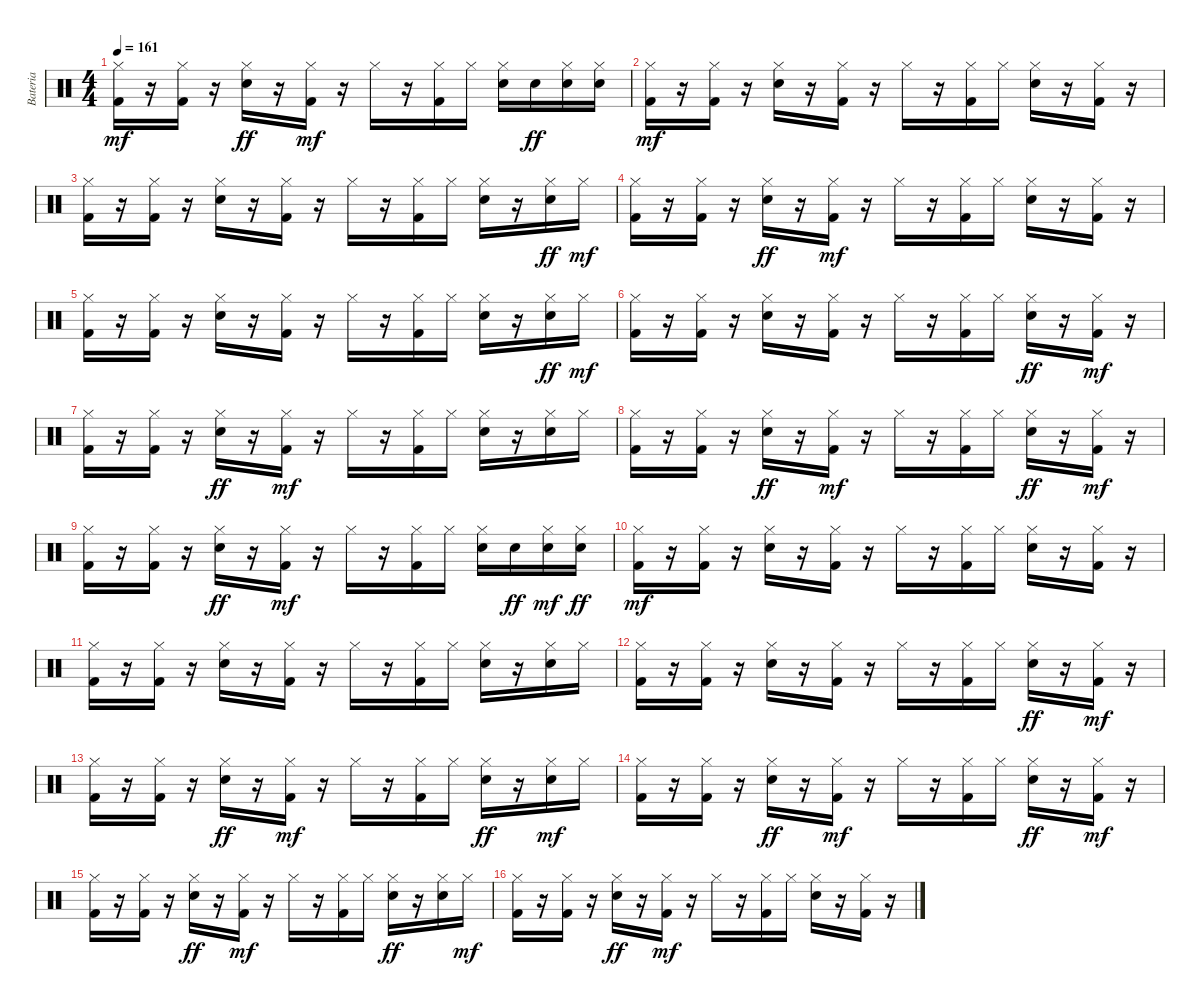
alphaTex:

\track ("Bateria" "Bateria") {instrument percussion}
\staff {score}
\articulation defaults
\ts (4 4)
\tempo 161
\clef neutral
\ks c
("Hi-Hat (closed)" "Kick (hit) 2").16{dy mf} r.16 ("Kick (hit) 2" "Hi-Hat (closed)").16 r.16 ("Hi-Hat (closed)" "Electric Snare (hit)").16{dy ff} r.16 ("Hi-Hat (closed)" "Kick (hit) 2").16{dy mf} r.16 "Hi-Hat (closed)".16 r.16 ("Hi-Hat (closed)" "Kick (hit) 2").16 "Hi-Hat (closed)".16 ("Electric Snare (hit)" "Hi-Hat (closed)").16 "Electric Snare (hit)".16{dy ff} ("Hi-Hat (closed)" "Electric Snare (hit)").16 ("Hi-Hat (closed)" "Electric Snare (hit)").16 |
("Kick (hit) 2" "Hi-Hat (closed)").16{dy mf} r.16 ("Kick (hit) 2" "Hi-Hat (closed)").16 r.16 ("Electric Snare (hit)" "Hi-Hat (closed)").16 r.16 ("Kick (hit) 2" "Hi-Hat (closed)").16 r.16 "Hi-Hat (closed)".16 r.16 ("Kick (hit) 2" "Hi-Hat (closed)").16 "Hi-Hat (closed)".16 ("Electric Snare (hit)" "Hi-Hat (closed)").16 r.16 ("Kick (hit) 2" "Hi-Hat (closed)").16 r.16 |
("Hi-Hat (closed)" "Kick (hit) 2").16 r.16 ("Kick (hit) 2" "Hi-Hat (closed)").16 r.16 ("Electric Snare (hit)" "Hi-Hat (closed)").16 r.16 ("Kick (hit) 2" "Hi-Hat (closed)").16 r.16 "Hi-Hat (closed)".16 r.16 ("Hi-Hat (closed)" "Kick (hit) 2").16 "Hi-Hat (closed)".16 ("Electric Snare (hit)" "Hi-Hat (closed)").16 r.16 ("Hi-Hat (closed)" "Electric Snare (hit)").16{dy ff} "Hi-Hat (closed)".16{dy mf} |
("Kick (hit) 2" "Hi-Hat (closed)").16 r.16 ("Kick (hit) 2" "Hi-Hat (closed)").16 r.16 ("Hi-Hat (closed)" "Electric Snare (hit)").16{dy ff} r.16 ("Hi-Hat (closed)" "Kick (hit) 2").16{dy mf} r.16 "Hi-Hat (closed)".16 r.16 ("Hi-Hat (closed)" "Kick (hit) 2").16 "Hi-Hat (closed)".16 ("Electric Snare (hit)" "Hi-Hat (closed)").16 r.16 ("Hi-Hat (closed)" "Kick (hit) 2").16 r.16 |
("Kick (hit) 2" "Hi-Hat (closed)").16 r.16 ("Kick (hit) 2" "Hi-Hat (closed)").16 r.16 ("Electric Snare (hit)" "Hi-Hat (closed)").16 r.16 ("Kick (hit) 2" "Hi-Hat (closed)").16 r.16 "Hi-Hat (closed)".16 r.16 ("Kick (hit) 2" "Hi-Hat (closed)").16 "Hi-Hat (closed)".16 ("Electric Snare (hit)" "Hi-Hat (closed)").16 r.16 ("Hi-Hat (closed)" "Electric Snare (hit)").16{dy ff} "Hi-Hat (closed)".16{dy mf} |
("Hi-Hat (closed)" "Kick (hit) 2").16 r.16 ("Hi-Hat (closed)" "Kick (hit) 2").16 r.16 ("Electric Snare (hit)" "Hi-Hat (closed)").16 r.16 ("Hi-Hat (closed)" "Kick (hit) 2").16 r.16 "Hi-Hat (closed)".16 r.16 ("Hi-Hat (closed)" "Kick (hit) 2").16 "Hi-Hat (closed)".16 ("Hi-Hat (closed)" "Electric Snare (hit)").16{dy ff} r.16 ("Kick (hit) 2" "Hi-Hat (closed)").16{dy mf} r.16 |
("Kick (hit) 2" "Hi-Hat (closed)").16 r.16 ("Hi-Hat (closed)" "Kick (hit) 2").16 r.16 ("Hi-Hat (closed)" "Electric Snare (hit)").16{dy ff} r.16 ("Kick (hit) 2" "Hi-Hat (closed)").16{dy mf} r.16 "Hi-Hat (closed)".16 r.16 ("Kick (hit) 2" "Hi-Hat (closed)").16 "Hi-Hat (closed)".16 ("Electric Snare (hit)" "Hi-Hat (closed)").16 r.16 ("Electric Snare (hit)" "Hi-Hat (closed)").16 "Hi-Hat (closed)".16 |
("Hi-Hat (closed)" "Kick (hit) 2").16 r.16 ("Hi-Hat (closed)" "Kick (hit) 2").16 r.16 ("Hi-Hat (closed)" "Electric Snare (hit)").16{dy ff} r.16 ("Kick (hit) 2" "Hi-Hat (closed)").16{dy mf} r.16 "Hi-Hat (closed)".16 r.16 ("Kick (hit) 2" "Hi-Hat (closed)").16 "Hi-Hat (closed)".16 ("Hi-Hat (closed)" "Electric Snare (hit)").16{dy ff} r.16 ("Hi-Hat (closed)" "Kick (hit) 2").16{dy mf} r.16 |
("Kick (hit) 2" "Hi-Hat (closed)").16 r.16 ("Kick (hit) 2" "Hi-Hat (closed)").16 r.16 ("Hi-Hat (closed)" "Electric Snare (hit)").16{dy ff} r.16 ("Kick (hit) 2" "Hi-Hat (closed)").16{dy mf} r.16 "Hi-Hat (closed)".16 r.16 ("Hi-Hat (closed)" "Kick (hit) 2").16 "Hi-Hat (closed)".16 ("Electric Snare (hit)" "Hi-Hat (closed)").16 "Electric Snare (hit)".16{dy ff} ("Electric Snare (hit)" "Hi-Hat (closed)").16{dy mf} ("Hi-Hat (closed)" "Electric Snare (hit)").16{dy ff} |
("Kick (hit) 2" "Hi-Hat (closed)").16{dy mf} r.16 ("Kick (hit) 2" "Hi-Hat (closed)").16 r.16 ("Electric Snare (hit)" "Hi-Hat (closed)").16 r.16 ("Hi-Hat (closed)" "Kick (hit) 2").16 r.16 "Hi-Hat (closed)".16 r.16 ("Kick (hit) 2" "Hi-Hat (closed)").16 "Hi-Hat (closed)".16 ("Electric Snare (hit)" "Hi-Hat (closed)").16 r.16 ("Kick (hit) 2" "Hi-Hat (closed)").16 r.16 |
("Hi-Hat (closed)" "Kick (hit) 2").16 r.16 ("Hi-Hat (closed)" "Kick (hit) 2").16 r.16 ("Electric Snare (hit)" "Hi-Hat (closed)").16 r.16 ("Hi-Hat (closed)" "Kick (hit) 2").16 r.16 "Hi-Hat (closed)".16 r.16 ("Kick (hit) 2" "Hi-Hat (closed)").16 "Hi-Hat (closed)".16 ("Electric Snare (hit)" "Hi-Hat (closed)").16 r.16 ("Electric Snare (hit)" "Hi-Hat (closed)").16 "Hi-Hat (closed)".16 |
("Hi-Hat (closed)" "Kick (hit) 2").16 r.16 ("Hi-Hat (closed)" "Kick (hit) 2").16 r.16 ("Electric Snare (hit)" "Hi-Hat (closed)").16 r.16 ("Hi-Hat (closed)" "Kick (hit) 2").16 r.16 "Hi-Hat (closed)".16 r.16 ("Hi-Hat (closed)" "Kick (hit) 2").16 "Hi-Hat (closed)".16 ("Hi-Hat (closed)" "Electric Snare (hit)").16{dy ff} r.16 ("Hi-Hat (closed)" "Kick (hit) 2").16{dy mf} r.16 |
("Hi-Hat (closed)" "Kick (hit) 2").16 r.16 ("Kick (hit) 2" "Hi-Hat (closed)").16 r.16 ("Hi-Hat (closed)" "Electric Snare (hit)").16{dy ff} r.16 ("Kick (hit) 2" "Hi-Hat (closed)").16{dy mf} r.16 "Hi-Hat (closed)".16 r.16 ("Hi-Hat (closed)" "Kick (hit) 2").16 "Hi-Hat (closed)".16 ("Hi-Hat (closed)" "Electric Snare (hit)").16{dy ff} r.16 ("Electric Snare (hit)" "Hi-Hat (closed)").16{dy mf} "Hi-Hat (closed)".16 |
("Kick (hit) 2" "Hi-Hat (closed)").16 r.16 ("Kick (hit) 2" "Hi-Hat (closed)").16 r.16 ("Hi-Hat (closed)" "Electric Snare (hit)").16{dy ff} r.16 ("Kick (hit) 2" "Hi-Hat (closed)").16{dy mf} r.16 "Hi-Hat (closed)".16 r.16 ("Hi-Hat (closed)" "Kick (hit) 2").16 "Hi-Hat (closed)".16 ("Hi-Hat (closed)" "Electric Snare (hit)").16{dy ff} r.16 ("Hi-Hat (closed)" "Kick (hit) 2").16{dy mf} r.16 |
("Kick (hit) 2" "Hi-Hat (closed)").16 r.16 ("Hi-Hat (closed)" "Kick (hit) 2").16 r.16 ("Hi-Hat (closed)" "Electric Snare (hit)").16{dy ff} r.16 ("Kick (hit) 2" "Hi-Hat (closed)").16{dy mf} r.16 "Hi-Hat (closed)".16 r.16 ("Hi-Hat (closed)" "Kick (hit) 2").16 "Hi-Hat (closed)".16 ("Hi-Hat (closed)" "Electric Snare (hit)").16{dy ff} r.16 ("Hi-Hat (closed)" "Electric Snare (hit)").16 "Hi-Hat (closed)".16{dy mf} |
("Kick (hit) 2" "Hi-Hat (closed)").16 r.16 ("Hi-Hat (closed)" "Kick (hit) 2").16 r.16 ("Hi-Hat (closed)" "Electric Snare (hit)").16{dy ff} r.16 ("Hi-Hat (closed)" "Kick (hit) 2").16{dy mf} r.16 "Hi-Hat (closed)".16 r.16 ("Hi-Hat (closed)" "Kick (hit) 2").16 "Hi-Hat (closed)".16 ("Electric Snare (hit)" "Hi-Hat (closed)").16 r.16 ("Hi-Hat (closed)" "Kick (hit) 2").16 r.16
